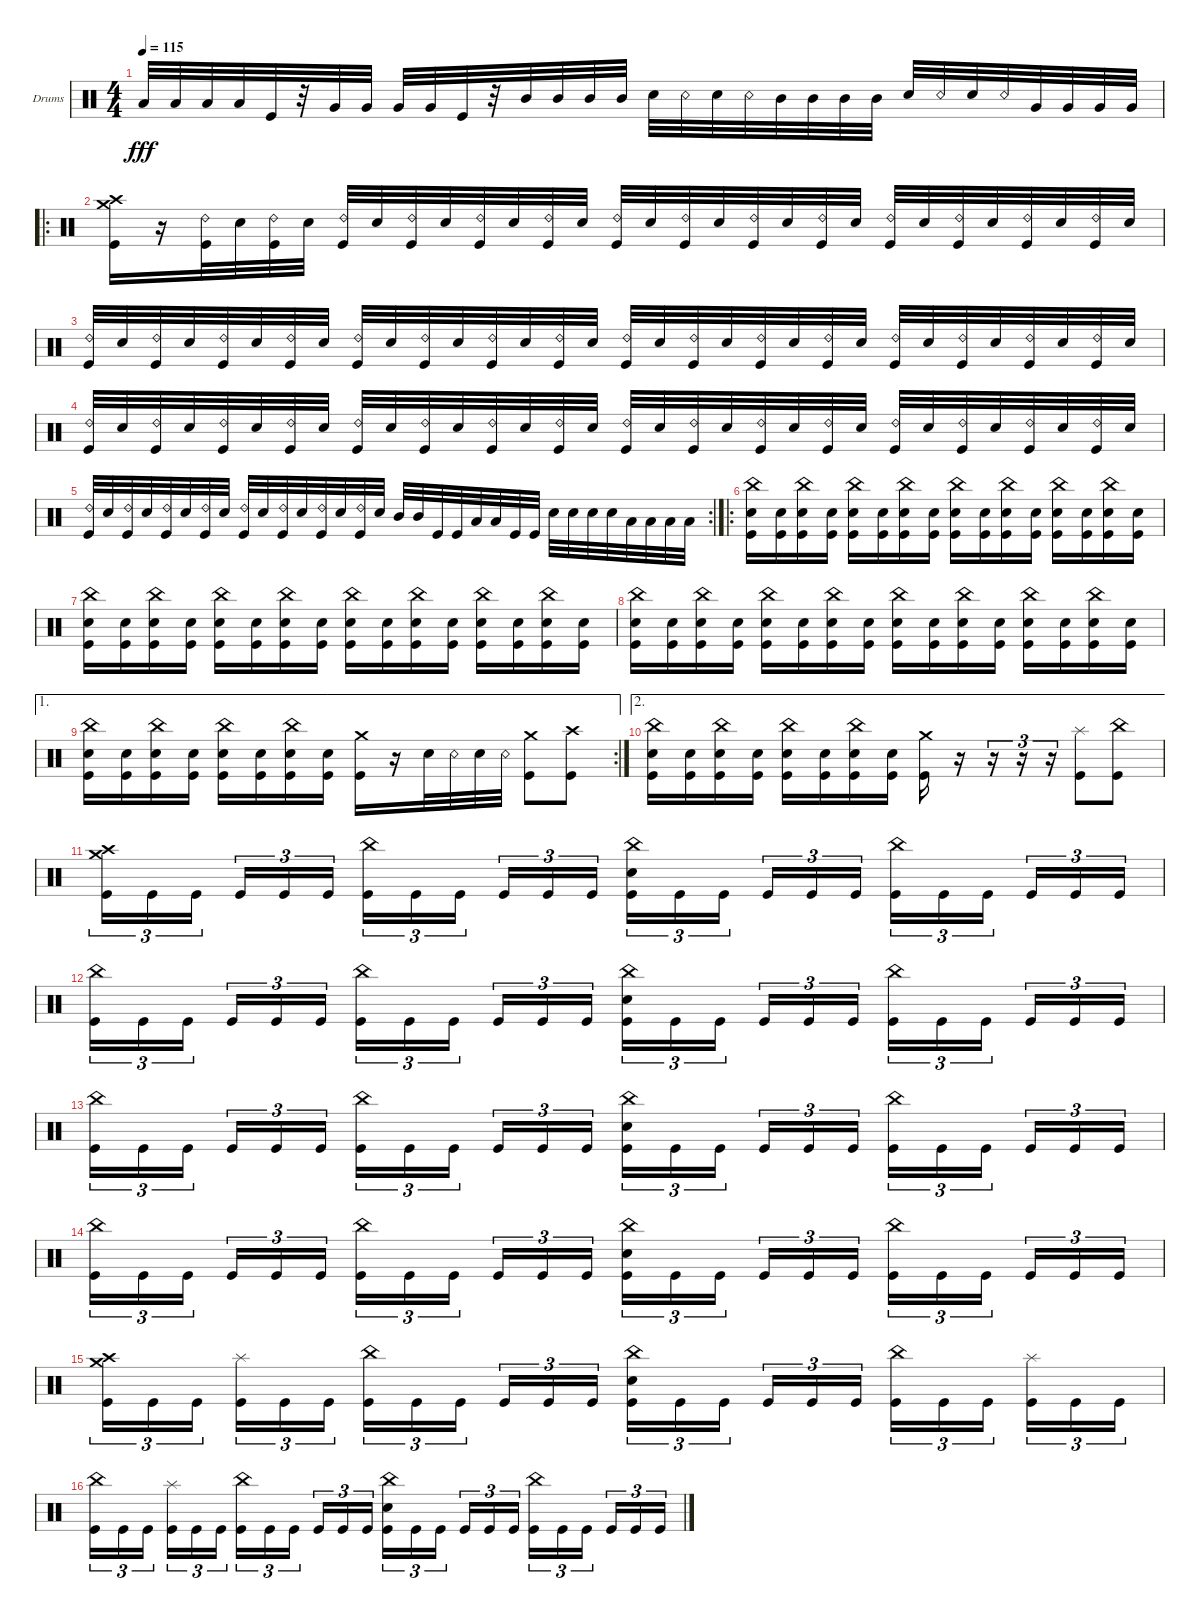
\bracketExtendMode groupsimilarinstruments
\firstSystemTrackNameOrientation horizontal
\otherSystemsTrackNameOrientation horizontal
\track ("Drumkit" "Drums") {instrument percussion}
\staff {score}
\articulation defaults
\ts (4 4)
\tempo 115
\clef neutral
\ks c "Low Tom (hit)".32{dy fff} "Low Tom (hit)".32 "Low Tom (hit)".32 "Low Tom (hit)".32 "Kick (hit)".32
r.32 "Very Low Tom (hit)".32 "Very Low Tom (hit)".32 "Very Low Tom (hit)".32 "Very Low Tom (hit)".32 "Kick (hit)".32 r.32 "Mid Tom (hit)".32 "Mid Tom (hit)".32 "Mid Tom (hit)".32 "Mid Tom (hit)".32 "Snare (hit) 2".32 "Snare (rim shot)".32 "Snare (hit) 2".32 "Snare (rim shot)".32 "Mid Tom (hit)".32 "Mid Tom (hit)".32 "Mid Tom (hit)".32 "Mid Tom (hit)".32 "Snare (hit) 2".32 "Snare (rim shot)".32 "Snare (hit) 2".32 "Snare (rim shot)".32 "Very Low Tom (hit)".32 "Very Low Tom (hit)".32 "Very Low Tom (hit)".32 "Very Low Tom (hit)".32 |
\ro
("Kick (hit)" "Crash medium (hit)" "Crash high (hit)").16 r.16 ("Kick (hit)" "Ride (bell) 2").32 "Snare (hit) 2".32 ("Kick (hit)" "Ride (bell) 2").32 "Snare (hit) 2".32 ("Kick (hit)" "Ride (bell) 2").32 "Snare (hit) 2".32 ("Kick (hit)" "Ride (bell) 2").32 "Snare (hit) 2".32 ("Kick (hit)" "Ride (bell) 2").32 "Snare (hit) 2".32 ("Kick (hit)" "Ride (bell) 2").32 "Snare (hit) 2".32 ("Kick (hit)" "Ride (bell) 2").32 "Snare (hit) 2".32 ("Kick (hit)" "Ride (bell) 2").32 "Snare (hit) 2".32 ("Kick (hit)" "Ride (bell) 2").32 "Snare (hit) 2".32 ("Kick (hit)" "Ride (bell) 2").32 "Snare (hit) 2".32 ("Kick (hit)" "Ride (bell) 2").32 "Snare (hit) 2".32 ("Kick (hit)" "Ride (bell) 2").32 "Snare (hit) 2".32 ("Kick (hit)" "Ride (bell) 2").32 "Snare (hit) 2".32 ("Kick (hit)" "Ride (bell) 2").32 "Snare (hit) 2".32 |
("Kick (hit)" "Ride (bell) 2").32 "Snare (hit) 2".32 ("Kick (hit)" "Ride (bell) 2").32 "Snare (hit) 2".32 ("Kick (hit)" "Ride (bell) 2").32 "Snare (hit) 2".32 ("Kick (hit)" "Ride (bell) 2").32 "Snare (hit) 2".32 ("Kick (hit)" "Ride (bell) 2").32 "Snare (hit) 2".32 ("Kick (hit)" "Ride (bell) 2").32 "Snare (hit) 2".32 ("Kick (hit)" "Ride (bell) 2").32 "Snare (hit) 2".32 ("Kick (hit)" "Ride (bell) 2").32 "Snare (hit) 2".32 ("Kick (hit)" "Ride (bell) 2").32 "Snare (hit) 2".32 ("Kick (hit)" "Ride (bell) 2").32 "Snare (hit) 2".32 ("Kick (hit)" "Ride (bell) 2").32 "Snare (hit) 2".32 ("Kick (hit)" "Ride (bell) 2").32 "Snare (hit) 2".32 ("Kick (hit)" "Ride (bell) 2").32 "Snare (hit) 2".32 ("Kick (hit)" "Ride (bell) 2").32 "Snare (hit) 2".32 ("Kick (hit)" "Ride (bell) 2").32 "Snare (hit) 2".32 ("Kick (hit)" "Ride (bell) 2").32 "Snare (hit) 2".32 |
("Kick (hit)" "Ride (bell) 2").32 "Snare (hit) 2".32 ("Kick (hit)" "Ride (bell) 2").32 "Snare (hit) 2".32 ("Kick (hit)" "Ride (bell) 2").32 "Snare (hit) 2".32 ("Kick (hit)" "Ride (bell) 2").32 "Snare (hit) 2".32 ("Kick (hit)" "Ride (bell) 2").32 "Snare (hit) 2".32 ("Kick (hit)" "Ride (bell) 2").32 "Snare (hit) 2".32 ("Kick (hit)" "Ride (bell) 2").32 "Snare (hit) 2".32 ("Kick (hit)" "Ride (bell) 2").32 "Snare (hit) 2".32 ("Kick (hit)" "Ride (bell) 2").32 "Snare (hit) 2".32 ("Kick (hit)" "Ride (bell) 2").32 "Snare (hit) 2".32 ("Kick (hit)" "Ride (bell) 2").32 "Snare (hit) 2".32 ("Kick (hit)" "Ride (bell) 2").32 "Snare (hit) 2".32 ("Kick (hit)" "Ride (bell) 2").32 "Snare (hit) 2".32 ("Kick (hit)" "Ride (bell) 2").32 "Snare (hit) 2".32 ("Kick (hit)" "Ride (bell) 2").32 "Snare (hit) 2".32 ("Kick (hit)" "Ride (bell) 2").32 "Snare (hit) 2".32 |
\rc 2
("Kick (hit)" "Ride (bell) 2").32 "Snare (hit) 2".32 ("Kick (hit)" "Ride (bell) 2").32 "Snare (hit) 2".32 ("Kick (hit)" "Ride (bell) 2").32 "Snare (hit) 2".32 ("Kick (hit)" "Ride (bell) 2").32 "Snare (hit) 2".32 ("Kick (hit)" "Ride (bell) 2").32 "Snare (hit) 2".32 ("Kick (hit)" "Ride (bell) 2").32 "Snare (hit) 2".32 ("Kick (hit)" "Ride (bell) 2").32 "Snare (hit) 2".32 ("Kick (hit)" "Ride (bell) 2").32 "Snare (hit) 2".32 "Mid Tom (hit)".32 "Mid Tom (hit)".32 "Kick (hit)".32 "Kick (hit)".32 "Low Tom (hit)".32 "Low Tom (hit)".32 "Kick (hit)".32 "Kick (hit)".32 "Snare (hit) 2".32 "Snare (hit) 2".32 "Snare (hit) 2".32 "Snare (hit) 2".32 "Low Tom (hit)".32 "Low Tom (hit)".32 "Low Tom (hit)".32 "Low Tom (hit)".32 |
\ro
("Snare (hit) 2" "China (hit)" "Kick (hit)").16 ("Snare (hit) 2" "Kick (hit)").16 ("Snare (hit) 2" "China (hit)" "Kick (hit)").16 ("Snare (hit) 2" "Kick (hit)").16 ("Snare (hit) 2" "China (hit)" "Kick (hit)").16 ("Snare (hit) 2" "Kick (hit)").16 ("Snare (hit) 2" "China (hit)" "Kick (hit)").16 ("Snare (hit) 2" "Kick (hit)").16 ("Snare (hit) 2" "China (hit)" "Kick (hit)").16 ("Snare (hit) 2" "Kick (hit)").16 ("Snare (hit) 2" "China (hit)" "Kick (hit)").16 ("Snare (hit) 2" "Kick (hit)").16 ("Snare (hit) 2" "China (hit)" "Kick (hit)").16 ("Snare (hit) 2" "Kick (hit)").16 ("Snare (hit) 2" "China (hit)" "Kick (hit)").16 ("Snare (hit) 2" "Kick (hit)").16 |
("Snare (hit) 2" "China (hit)" "Kick (hit)").16 ("Snare (hit) 2" "Kick (hit)").16 ("Snare (hit) 2" "China (hit)" "Kick (hit)").16 ("Snare (hit) 2" "Kick (hit)").16 ("Snare (hit) 2" "China (hit)" "Kick (hit)").16 ("Snare (hit) 2" "Kick (hit)").16 ("Snare (hit) 2" "China (hit)" "Kick (hit)").16 ("Snare (hit) 2" "Kick (hit)").16 ("Snare (hit) 2" "China (hit)" "Kick (hit)").16 ("Snare (hit) 2" "Kick (hit)").16 ("Snare (hit) 2" "China (hit)" "Kick (hit)").16 ("Snare (hit) 2" "Kick (hit)").16 ("Snare (hit) 2" "China (hit)" "Kick (hit)").16 ("Snare (hit) 2" "Kick (hit)").16 ("Snare (hit) 2" "China (hit)" "Kick (hit)").16 ("Snare (hit) 2" "Kick (hit)").16 |
("Snare (hit) 2" "China (hit)" "Kick (hit)").16 ("Snare (hit) 2" "Kick (hit)").16 ("Snare (hit) 2" "China (hit)" "Kick (hit)").16 ("Snare (hit) 2" "Kick (hit)").16 ("Snare (hit) 2" "China (hit)" "Kick (hit)").16 ("Snare (hit) 2" "Kick (hit)").16 ("Snare (hit) 2" "China (hit)" "Kick (hit)").16 ("Snare (hit) 2" "Kick (hit)").16 ("Snare (hit) 2" "China (hit)" "Kick (hit)").16 ("Snare (hit) 2" "Kick (hit)").16 ("Snare (hit) 2" "China (hit)" "Kick (hit)").16 ("Snare (hit) 2" "Kick (hit)").16 ("Snare (hit) 2" "China (hit)" "Kick (hit)").16 ("Snare (hit) 2" "Kick (hit)").16 ("Snare (hit) 2" "China (hit)" "Kick (hit)").16 ("Snare (hit) 2" "Kick (hit)").16 |
\ae 1
\rc 2
("Snare (hit) 2" "China (hit)" "Kick (hit)").16 ("Snare (hit) 2" "Kick (hit)").16 ("Snare (hit) 2" "China (hit)" "Kick (hit)").16 ("Snare (hit) 2" "Kick (hit)").16 ("Snare (hit) 2" "China (hit)" "Kick (hit)").16 ("Snare (hit) 2" "Kick (hit)").16 ("Snare (hit) 2" "China (hit)" "Kick (hit)").16 ("Snare (hit) 2" "Kick (hit)").16 ("Kick (hit)" "Crash medium (hit)").16 r.16 "Snare (hit) 2".32 "Snare (rim shot)".32 "Snare (hit) 2".32 "Snare (rim shot)".32 ("Kick (hit)" "Crash medium (hit)").8 ("Kick (hit)" "Crash high (hit)").8 |
\ae 2
("Snare (hit) 2" "China (hit)" "Kick (hit)").16 ("Snare (hit) 2" "Kick (hit)").16 ("Snare (hit) 2" "China (hit)" "Kick (hit)").16 ("Snare (hit) 2" "Kick (hit)").16 ("Snare (hit) 2" "China (hit)" "Kick (hit)").16 ("Snare (hit) 2" "Kick (hit)").16 ("Snare (hit) 2" "China (hit)" "Kick (hit)").16 ("Snare (hit) 2" "Kick (hit)").16 ("Kick (hit)" "Crash medium (hit)").16 r.16 r.16{tu (3 2)} r.16{tu (3 2)} r.16{tu (3 2)} ("Splash (hit)" "Kick (hit)").8 ("China (hit)" "Kick (hit)").8 |
("Kick (hit)" "Crash high (hit)" "Crash medium (hit)").16{tu (3 2)} "Kick (hit)".16{tu (3 2)} "Kick (hit)".16{tu (3 2)} "Kick (hit)".16{tu (3 2)} "Kick (hit)".16{tu (3 2)} "Kick (hit)".16{tu (3 2)} ("Kick (hit)" "China (hit)").16{tu (3 2)} "Kick (hit)".16{tu (3 2)} "Kick (hit)".16{tu (3 2)} "Kick (hit)".16{tu (3 2)} "Kick (hit)".16{tu (3 2)} "Kick (hit)".16{tu (3 2)} ("Kick (hit)" "China (hit)" "Snare (hit) 2").16{tu (3 2)} "Kick (hit)".16{tu (3 2)} "Kick (hit)".16{tu (3 2)} "Kick (hit)".16{tu (3 2)} "Kick (hit)".16{tu (3 2)} "Kick (hit)".16{tu (3 2)} ("Kick (hit)" "China (hit)").16{tu (3 2)} "Kick (hit)".16{tu (3 2)} "Kick (hit)".16{tu (3 2)} "Kick (hit)".16{tu (3 2)} "Kick (hit)".16{tu (3 2)} "Kick (hit)".16{tu (3 2)} |
("Kick (hit)" "China (hit)").16{tu (3 2)} "Kick (hit)".16{tu (3 2)} "Kick (hit)".16{tu (3 2)} "Kick (hit)".16{tu (3 2)} "Kick (hit)".16{tu (3 2)} "Kick (hit)".16{tu (3 2)} ("Kick (hit)" "China (hit)").16{tu (3 2)} "Kick (hit)".16{tu (3 2)} "Kick (hit)".16{tu (3 2)} "Kick (hit)".16{tu (3 2)} "Kick (hit)".16{tu (3 2)} "Kick (hit)".16{tu (3 2)} ("Kick (hit)" "China (hit)" "Snare (hit) 2").16{tu (3 2)} "Kick (hit)".16{tu (3 2)} "Kick (hit)".16{tu (3 2)} "Kick (hit)".16{tu (3 2)} "Kick (hit)".16{tu (3 2)} "Kick (hit)".16{tu (3 2)} ("Kick (hit)" "China (hit)").16{tu (3 2)} "Kick (hit)".16{tu (3 2)} "Kick (hit)".16{tu (3 2)} "Kick (hit)".16{tu (3 2)} "Kick (hit)".16{tu (3 2)} "Kick (hit)".16{tu (3 2)} |
("Kick (hit)" "China (hit)").16{tu (3 2)} "Kick (hit)".16{tu (3 2)} "Kick (hit)".16{tu (3 2)} "Kick (hit)".16{tu (3 2)} "Kick (hit)".16{tu (3 2)} "Kick (hit)".16{tu (3 2)} ("Kick (hit)" "China (hit)").16{tu (3 2)} "Kick (hit)".16{tu (3 2)} "Kick (hit)".16{tu (3 2)} "Kick (hit)".16{tu (3 2)} "Kick (hit)".16{tu (3 2)} "Kick (hit)".16{tu (3 2)} ("Kick (hit)" "China (hit)" "Snare (hit) 2").16{tu (3 2)} "Kick (hit)".16{tu (3 2)} "Kick (hit)".16{tu (3 2)} "Kick (hit)".16{tu (3 2)} "Kick (hit)".16{tu (3 2)} "Kick (hit)".16{tu (3 2)} ("Kick (hit)" "China (hit)").16{tu (3 2)} "Kick (hit)".16{tu (3 2)} "Kick (hit)".16{tu (3 2)} "Kick (hit)".16{tu (3 2)} "Kick (hit)".16{tu (3 2)} "Kick (hit)".16{tu (3 2)} |
("Kick (hit)" "China (hit)").16{tu (3 2)} "Kick (hit)".16{tu (3 2)} "Kick (hit)".16{tu (3 2)} "Kick (hit)".16{tu (3 2)} "Kick (hit)".16{tu (3 2)} "Kick (hit)".16{tu (3 2)} ("Kick (hit)" "China (hit)").16{tu (3 2)} "Kick (hit)".16{tu (3 2)} "Kick (hit)".16{tu (3 2)} "Kick (hit)".16{tu (3 2)} "Kick (hit)".16{tu (3 2)} "Kick (hit)".16{tu (3 2)} ("Kick (hit)" "China (hit)" "Snare (hit) 2").16{tu (3 2)} "Kick (hit)".16{tu (3 2)} "Kick (hit)".16{tu (3 2)} "Kick (hit)".16{tu (3 2)} "Kick (hit)".16{tu (3 2)} "Kick (hit)".16{tu (3 2)} ("Kick (hit)" "China (hit)").16{tu (3 2)} "Kick (hit)".16{tu (3 2)} "Kick (hit)".16{tu (3 2)} "Kick (hit)".16{tu (3 2)} "Kick (hit)".16{tu (3 2)} "Kick (hit)".16{tu (3 2)} |
("Kick (hit)" "Crash high (hit)" "Crash medium (hit)").16{tu (3 2)} "Kick (hit)".16{tu (3 2)} "Kick (hit)".16{tu (3 2)} ("Kick (hit)" "Splash (hit)").16{tu (3 2)} "Kick (hit)".16{tu (3 2)} "Kick (hit)".16{tu (3 2)} ("Kick (hit)" "China (hit)").16{tu (3 2)} "Kick (hit)".16{tu (3 2)} "Kick (hit)".16{tu (3 2)} "Kick (hit)".16{tu (3 2)} "Kick (hit)".16{tu (3 2)} "Kick (hit)".16{tu (3 2)} ("Kick (hit)" "China (hit)" "Snare (hit) 2").16{tu (3 2)} "Kick (hit)".16{tu (3 2)} "Kick (hit)".16{tu (3 2)} "Kick (hit)".16{tu (3 2)} "Kick (hit)".16{tu (3 2)} "Kick (hit)".16{tu (3 2)} ("Kick (hit)" "China (hit)").16{tu (3 2)} "Kick (hit)".16{tu (3 2)} "Kick (hit)".16{tu (3 2)} ("Kick (hit)" "Splash (hit)").16{tu (3 2)} "Kick (hit)".16{tu (3 2)} "Kick (hit)".16{tu (3 2)} |
("Kick (hit)" "China (hit)").16{tu (3 2)} "Kick (hit)".16{tu (3 2)} "Kick (hit)".16{tu (3 2)} ("Kick (hit)" "Splash (hit)").16{tu (3 2)} "Kick (hit)".16{tu (3 2)} "Kick (hit)".16{tu (3 2)} ("Kick (hit)" "China (hit)").16{tu (3 2)} "Kick (hit)".16{tu (3 2)} "Kick (hit)".16{tu (3 2)} "Kick (hit)".16{tu (3 2)} "Kick (hit)".16{tu (3 2)} "Kick (hit)".16{tu (3 2)} ("Kick (hit)" "China (hit)" "Snare (hit) 2").16{tu (3 2)} "Kick (hit)".16{tu (3 2)} "Kick (hit)".16{tu (3 2)} "Kick (hit)".16{tu (3 2)} "Kick (hit)".16{tu (3 2)} "Kick (hit)".16{tu (3 2)} ("Kick (hit)" "China (hit)").16{tu (3 2)} "Kick (hit)".16{tu (3 2)} "Kick (hit)".16{tu (3 2)} "Kick (hit)".16{tu (3 2)} "Kick (hit)".16{tu (3 2)} "Kick (hit)".16{tu (3 2)}
